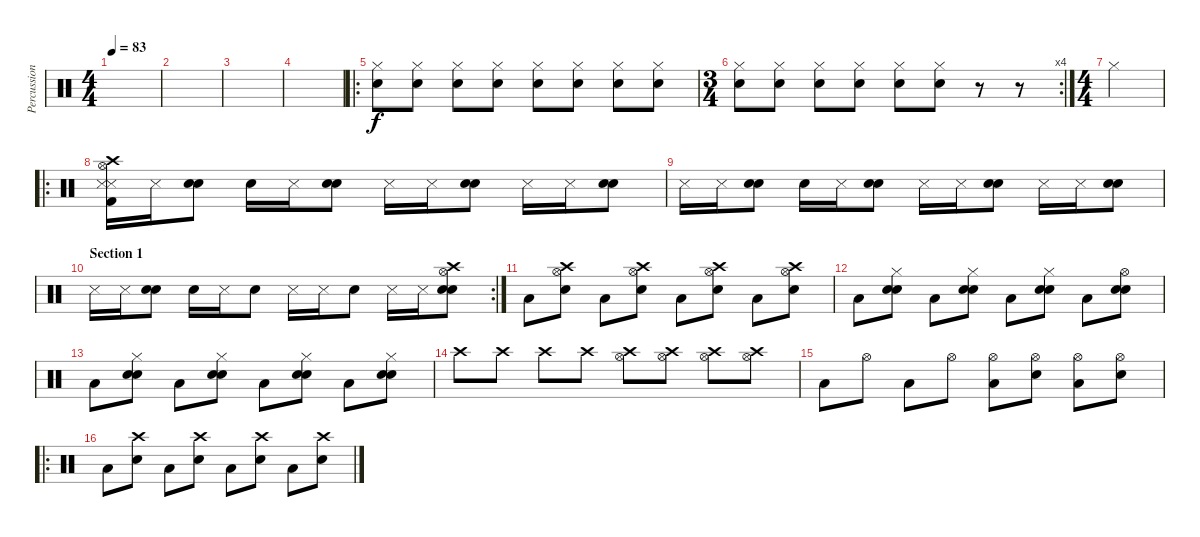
\track ("Percussion" "Percussion") {instrument percussion}
\staff {score}
\articulation defaults
\ts (4 4)
\tempo 83
\clef neutral
\ks c
|
|
|
|
\ro
("Electric Snare (hit)" "Hi-Hat (closed)").8 ("Electric Snare (hit)" "Hi-Hat (closed)").8 ("Hi-Hat (closed)" "Electric Snare (hit)").8 ("Hi-Hat (closed)" "Electric Snare (hit)").8 ("Hi-Hat (closed)" "Electric Snare (hit)").8 ("Hi-Hat (closed)" "Electric Snare (hit)").8 ("Hi-Hat (closed)" "Electric Snare (hit)").8 ("Hi-Hat (closed)" "Electric Snare (hit)").8 |
\rc 4
\ts (3 4)
("Hi-Hat (closed)" "Electric Snare (hit)").8 ("Hi-Hat (closed)" "Electric Snare (hit)").8 ("Hi-Hat (closed)" "Electric Snare (hit)").8 ("Hi-Hat (closed)" "Electric Snare (hit)").8 ("Hi-Hat (closed)" "Electric Snare (hit)").8 ("Hi-Hat (closed)" "Electric Snare (hit)").8 r.8 r.8 |
\ts (4 4)
"Hi-Hat (closed)".4 |
\ro
("Kick (hit) 2" "Snare (side stick) 3" "Crash high (hit)" "Hi-Hat (open)" "Snare (side stick) 3").16 "Snare (side stick) 3".16 ("Snare (hit) 2" "Electric Snare (hit)").8 "Hand Clap (hit)".16 "Snare (side stick) 3".16 ("Snare (hit) 2" "Electric Snare (hit)").8 "Snare (side stick) 3".16 "Snare (side stick) 3".16 ("Snare (hit) 2" "Electric Snare (hit)").8 "Snare (side stick) 3".16 "Snare (side stick) 3".16 ("Snare (hit) 2" "Electric Snare (hit)").8 |
"Snare (side stick) 3".16 "Snare (side stick) 3".16 ("Snare (hit) 2" "Electric Snare (hit)").8 "Hand Clap (hit)".16 "Snare (side stick) 3".16 ("Snare (hit) 2" "Electric Snare (hit)").8 "Snare (side stick) 3".16 "Snare (side stick) 3".16 ("Snare (hit) 2" "Electric Snare (hit)").8 "Snare (side stick) 3".16 "Snare (side stick) 3".16 ("Snare (hit) 2" "Electric Snare (hit)").8 |
\rc 2
\section ("" "Section 1")
"Snare (side stick) 3".16 "Snare (side stick) 3".16 ("Snare (hit) 2" "Electric Snare (hit)").8 "Hand Clap (hit)".16 "Snare (side stick) 3".16 "Electric Snare (hit)".8 "Snare (side stick) 3".16 "Snare (side stick) 3".16 "Electric Snare (hit)".8 "Snare (side stick) 3".16 "Snare (side stick) 3".16 ("Crash high (hit)" "Hi-Hat (open)" "Snare (hit) 2" "Electric Snare (hit)").8 |
"Low Tom (hit)".8 ("Hi-Hat (open)" "Crash high (hit)" "Hand Clap (hit)").8 "Low Tom (hit)".8 ("Hi-Hat (open)" "Crash high (hit)" "Hand Clap (hit)").8 "Low Tom (hit)".8 ("Hi-Hat (open)" "Crash high (hit)" "Hand Clap (hit)").8 "Low Tom (hit)".8 ("Hi-Hat (open)" "Crash high (hit)" "Hand Clap (hit)").8 |
"Low Tom (hit)".8 ("Electric Snare (hit)" "Hi-Hat (closed)" "Hand Clap (hit)").8 "Low Tom (hit)".8 ("Electric Snare (hit)" "Hi-Hat (closed)" "Hand Clap (hit)").8 "Low Tom (hit)".8 ("Electric Snare (hit)" "Hi-Hat (closed)" "Hand Clap (hit)").8 "Low Tom (hit)".8 ("Electric Snare (hit)" "Hi-Hat (open)" "Hand Clap (hit)").8 |
"Low Tom (hit)".8 ("Electric Snare (hit)" "Hi-Hat (closed)" "Hand Clap (hit)").8 "Low Tom (hit)".8 ("Electric Snare (hit)" "Hi-Hat (closed)" "Hand Clap (hit)").8 "Low Tom (hit)".8 ("Electric Snare (hit)" "Hi-Hat (closed)" "Hand Clap (hit)").8 "Low Tom (hit)".8 ("Electric Snare (hit)" "Hi-Hat (closed)" "Hand Clap (hit)").8 |
"Crash high (hit)".8 "Crash high (hit)".8 "Crash high (hit)".8 "Crash high (hit)".8 ("Hi-Hat (open)" "Crash high (hit)").8 ("Hi-Hat (open)" "Crash high (hit)").8 ("Hi-Hat (open)" "Crash high (hit)").8 ("Hi-Hat (open)" "Crash high (hit)").8 |
"Low Tom (hit)".8 "Hi-Hat (open)".8 "Low Tom (hit)".8 "Hi-Hat (open)".8 ("Hi-Hat (open)" "Low Tom (hit)").8 ("Hi-Hat (open)" "Hand Clap (hit)").8 ("Hi-Hat (open)" "Low Tom (hit)").8 ("Hi-Hat (open)" "Hand Clap (hit)").8 |
\ro "Low Tom (hit)".8
("Crash high (hit)" "Electric Snare (hit)").8 "Low Tom (hit)".8 ("Crash high (hit)" "Electric Snare (hit)").8 "Low Tom (hit)".8 ("Crash high (hit)" "Electric Snare (hit)").8 "Low Tom (hit)".8 ("Crash high (hit)" "Electric Snare (hit)").8
